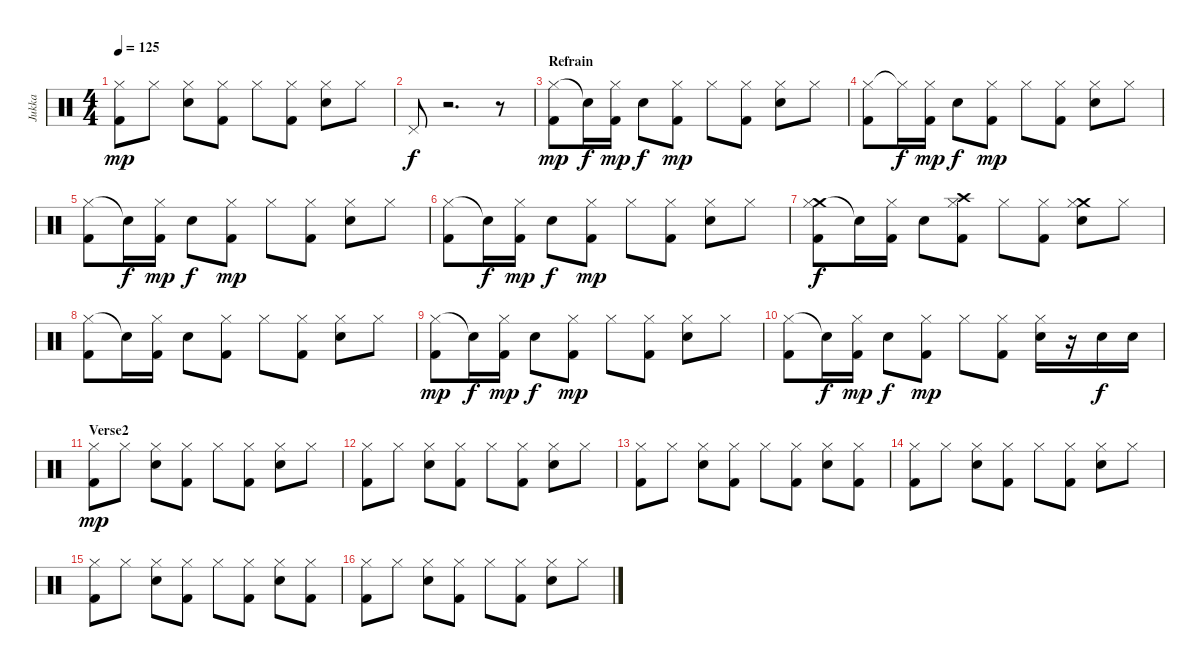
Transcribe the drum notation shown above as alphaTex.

\track ("Jukka" "Jukka") {instrument percussion}
\staff {score}
\articulation defaults
\ts (4 4)
\tempo 125
\clef neutral
\ks c
("Hi-Hat (closed)" "Kick (hit) 2").8{dy mp} "Hi-Hat (closed)".8 ("Hi-Hat (closed)" "Electric Snare (hit)").8 ("Hi-Hat (closed)" "Kick (hit) 2").8 "Hi-Hat (closed)".8 ("Hi-Hat (closed)" "Kick (hit) 2").8 ("Hi-Hat (closed)" "Electric Snare (hit)").8 "Hi-Hat (closed)".8 |
"Pedal Hi-Hat (hit)".8{dy f} r.2{d} r.8 |
\section ("" "Refrain")
("Hi-Hat (closed)" "Kick (hit) 2").8{dy mp} "Snare (hit)"{t}.16{dy f} ("Hi-Hat (closed)" "Kick (hit) 2").16{dy mp} "Electric Snare (hit)".8{dy f} ("Hi-Hat (closed)" "Kick (hit) 2").8{dy mp} "Hi-Hat (closed)".8 ("Hi-Hat (closed)" "Kick (hit) 2").8 ("Hi-Hat (closed)" "Electric Snare (hit)").8 "Hi-Hat (closed)".8 |
("Hi-Hat (closed)" "Kick (hit) 2").8 "Hi-Hat (closed)"{t}.16{dy f} ("Hi-Hat (closed)" "Kick (hit) 2").16{dy mp} "Electric Snare (hit)".8{dy f} ("Hi-Hat (closed)" "Kick (hit) 2").8{dy mp} "Hi-Hat (closed)".8 ("Hi-Hat (closed)" "Kick (hit) 2").8 ("Hi-Hat (closed)" "Electric Snare (hit)").8 "Hi-Hat (closed)".8 |
("Hi-Hat (closed)" "Kick (hit) 2").8 "Snare (hit)"{t}.16{dy f} ("Hi-Hat (closed)" "Kick (hit) 2").16{dy mp} "Electric Snare (hit)".8{dy f} ("Hi-Hat (closed)" "Kick (hit) 2").8{dy mp} "Hi-Hat (closed)".8 ("Hi-Hat (closed)" "Kick (hit) 2").8 ("Hi-Hat (closed)" "Electric Snare (hit)").8 "Hi-Hat (closed)".8 |
("Hi-Hat (closed)" "Kick (hit) 2").8 "Snare (hit)"{t}.16{dy f} ("Hi-Hat (closed)" "Kick (hit) 2").16{dy mp} "Electric Snare (hit)".8{dy f} ("Hi-Hat (closed)" "Kick (hit) 2").8{dy mp} "Hi-Hat (closed)".8 ("Hi-Hat (closed)" "Kick (hit) 2").8 ("Hi-Hat (closed)" "Electric Snare (hit)").8 "Hi-Hat (closed)".8 |
("Crash medium (hit)" "Hi-Hat (closed)" "Kick (hit) 2").8{dy f} "Snare (hit)"{t}.16 ("Hi-Hat (closed)" "Kick (hit) 2").16 "Electric Snare (hit)".8 ("Crash high (hit)" "Hi-Hat (closed)" "Kick (hit) 2").8 "Hi-Hat (closed)".8 ("Hi-Hat (closed)" "Kick (hit) 2").8 ("Crash medium (hit)" "Hi-Hat (closed)" "Electric Snare (hit)").8 "Hi-Hat (closed)".8 |
("Hi-Hat (closed)" "Kick (hit) 2").8 "Snare (hit)"{t}.16 ("Hi-Hat (closed)" "Kick (hit) 2").16 "Electric Snare (hit)".8 ("Hi-Hat (closed)" "Kick (hit) 2").8 "Hi-Hat (closed)".8 ("Hi-Hat (closed)" "Kick (hit) 2").8 ("Hi-Hat (closed)" "Electric Snare (hit)").8 "Hi-Hat (closed)".8 |
("Hi-Hat (closed)" "Kick (hit) 2").8{dy mp} "Snare (hit)"{t}.16{dy f} ("Hi-Hat (closed)" "Kick (hit) 2").16{dy mp} "Electric Snare (hit)".8{dy f} ("Hi-Hat (closed)" "Kick (hit) 2").8{dy mp} "Hi-Hat (closed)".8 ("Hi-Hat (closed)" "Kick (hit) 2").8 ("Hi-Hat (closed)" "Electric Snare (hit)").8 "Hi-Hat (closed)".8 |
("Hi-Hat (closed)" "Kick (hit) 2").8 "Snare (hit)"{t}.16{dy f} ("Hi-Hat (closed)" "Kick (hit) 2").16{dy mp} "Electric Snare (hit)".8{dy f} ("Hi-Hat (closed)" "Kick (hit) 2").8{dy mp} "Hi-Hat (closed)".8 ("Hi-Hat (closed)" "Kick (hit) 2").8 ("Hi-Hat (closed)" "Electric Snare (hit)").16 r.16 "Electric Snare (hit)".16{dy f} "Electric Snare (hit)".16 |
\section ("" "Verse2")
("Hi-Hat (closed)" "Kick (hit) 2").8{dy mp} "Hi-Hat (closed)".8 ("Hi-Hat (closed)" "Electric Snare (hit)").8 ("Hi-Hat (closed)" "Kick (hit) 2").8 "Hi-Hat (closed)".8 ("Hi-Hat (closed)" "Kick (hit) 2").8 ("Hi-Hat (closed)" "Electric Snare (hit)").8 "Hi-Hat (closed)".8 |
("Hi-Hat (closed)" "Kick (hit) 2").8 "Hi-Hat (closed)".8 ("Hi-Hat (closed)" "Electric Snare (hit)").8 ("Hi-Hat (closed)" "Kick (hit) 2").8 "Hi-Hat (closed)".8 ("Hi-Hat (closed)" "Kick (hit) 2").8 ("Hi-Hat (closed)" "Electric Snare (hit)").8 "Hi-Hat (closed)".8 |
("Hi-Hat (closed)" "Kick (hit) 2").8 "Hi-Hat (closed)".8 ("Hi-Hat (closed)" "Electric Snare (hit)").8 ("Hi-Hat (closed)" "Kick (hit) 2").8 "Hi-Hat (closed)".8 ("Hi-Hat (closed)" "Kick (hit) 2").8 ("Hi-Hat (closed)" "Electric Snare (hit)").8 ("Hi-Hat (closed)" "Kick (hit) 2").8 |
("Hi-Hat (closed)" "Kick (hit) 2").8 "Hi-Hat (closed)".8 ("Hi-Hat (closed)" "Electric Snare (hit)").8 ("Hi-Hat (closed)" "Kick (hit) 2").8 "Hi-Hat (closed)".8 ("Hi-Hat (closed)" "Kick (hit) 2").8 ("Hi-Hat (closed)" "Electric Snare (hit)").8 "Hi-Hat (closed)".8 |
("Hi-Hat (closed)" "Kick (hit) 2").8 "Hi-Hat (closed)".8 ("Hi-Hat (closed)" "Electric Snare (hit)").8 ("Hi-Hat (closed)" "Kick (hit) 2").8 "Hi-Hat (closed)".8 ("Hi-Hat (closed)" "Kick (hit) 2").8 ("Hi-Hat (closed)" "Electric Snare (hit)").8 ("Hi-Hat (closed)" "Kick (hit) 2").8 |
("Hi-Hat (closed)" "Kick (hit) 2").8 "Hi-Hat (closed)".8 ("Hi-Hat (closed)" "Electric Snare (hit)").8 ("Hi-Hat (closed)" "Kick (hit) 2").8 "Hi-Hat (closed)".8 ("Hi-Hat (closed)" "Kick (hit) 2").8 ("Hi-Hat (closed)" "Electric Snare (hit)").8 "Hi-Hat (closed)".8
